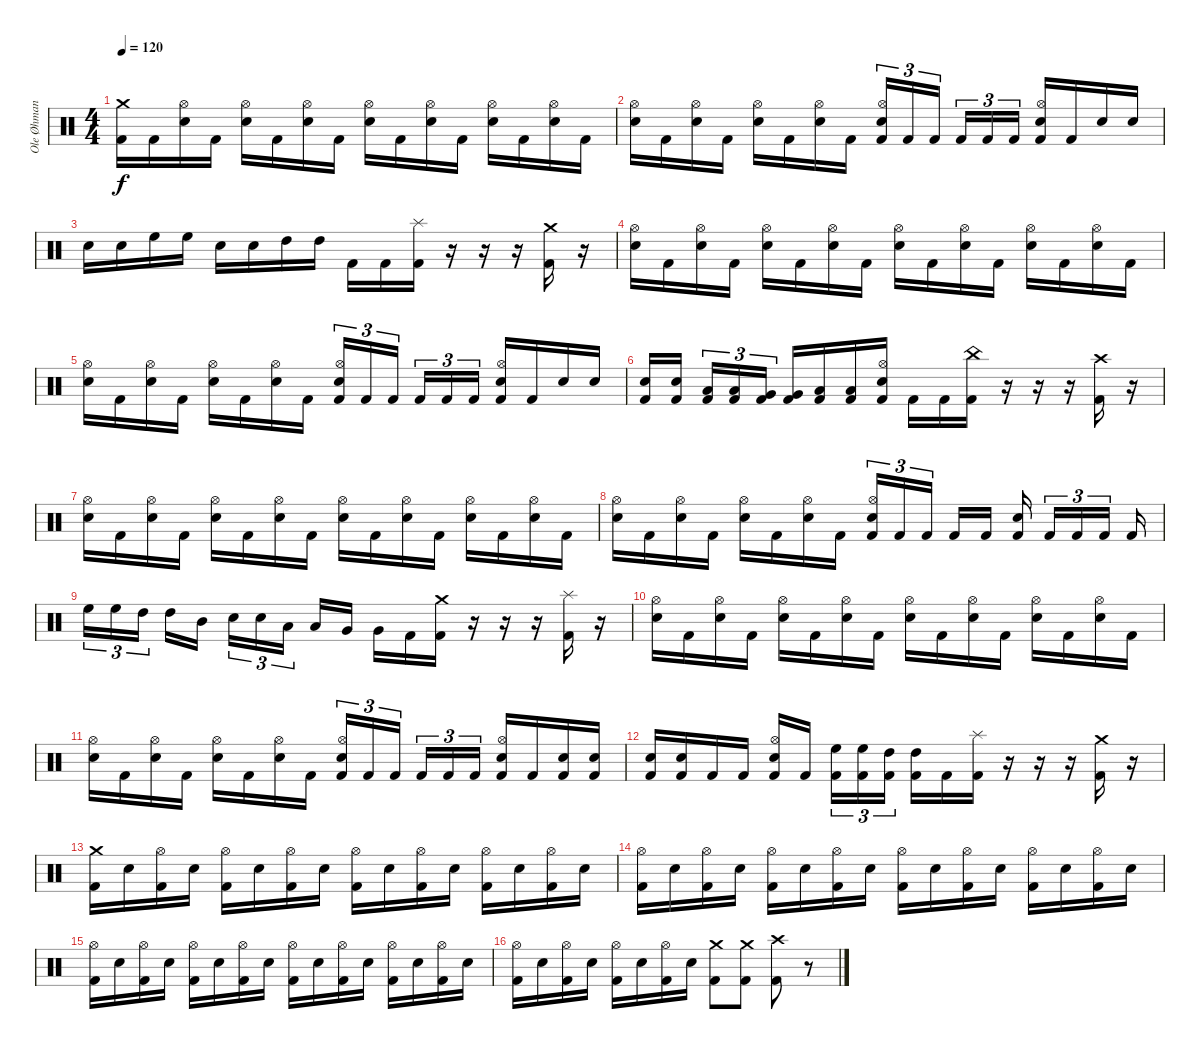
\track ("Ole Øhman (Trommur)" "Ole Øhman ") {instrument percussion}
\staff {score}
\articulation defaults
\ts (4 4)
\tempo 120
\clef neutral
\ks c
("Crash medium (hit)" "Kick (hit) 2").16{dy f} "Kick (hit) 2".16 ("Hi-Hat (open)" "Electric Snare (hit)").16 "Kick (hit) 2".16 ("Hi-Hat (open)" "Electric Snare (hit)").16 "Kick (hit) 2".16 ("Hi-Hat (open)" "Electric Snare (hit)").16 "Kick (hit) 2".16 ("Hi-Hat (open)" "Electric Snare (hit)").16 "Kick (hit) 2".16 ("Hi-Hat (open)" "Electric Snare (hit)").16 "Kick (hit) 2".16 ("Hi-Hat (open)" "Electric Snare (hit)").16 "Kick (hit) 2".16 ("Hi-Hat (open)" "Electric Snare (hit)").16 "Kick (hit) 2".16 |
("Hi-Hat (open)" "Electric Snare (hit)").16 "Kick (hit) 2".16 ("Hi-Hat (open)" "Electric Snare (hit)").16 "Kick (hit) 2".16 ("Hi-Hat (open)" "Electric Snare (hit)").16 "Kick (hit) 2".16 ("Hi-Hat (open)" "Electric Snare (hit)").16 "Kick (hit) 2".16 ("Hi-Hat (open)" "Electric Snare (hit)" "Kick (hit) 2").16{tu (3 2)} "Kick (hit) 2".16{tu (3 2)} "Kick (hit) 2".16{tu (3 2)} "Kick (hit) 2".16{tu (3 2)} "Kick (hit) 2".16{tu (3 2)} "Kick (hit) 2".16{tu (3 2)} ("Hi-Hat (open)" "Electric Snare (hit)" "Kick (hit) 2").16 "Kick (hit) 2".16 "Electric Snare (hit)".16 "Electric Snare (hit)".16 |
"Electric Snare (hit)".16 "Electric Snare (hit)".16 "High Floor Tom (hit)".16 "High Floor Tom (hit)".16 "Electric Snare (hit)".16 "Electric Snare (hit)".16 "High Tom (hit)".16 "High Tom (hit)".16 "Kick (hit) 2".16 "Kick (hit) 2".16 ("Splash (hit)" "Kick (hit) 2").16 r.16 r.16 r.16 ("Crash medium (hit)" "Kick (hit) 2").16 r.16 |
("Hi-Hat (open)" "Electric Snare (hit)").16 "Kick (hit) 2".16 ("Hi-Hat (open)" "Electric Snare (hit)").16 "Kick (hit) 2".16 ("Hi-Hat (open)" "Electric Snare (hit)").16 "Kick (hit) 2".16 ("Hi-Hat (open)" "Electric Snare (hit)").16 "Kick (hit) 2".16 ("Hi-Hat (open)" "Electric Snare (hit)").16 "Kick (hit) 2".16 ("Hi-Hat (open)" "Electric Snare (hit)").16 "Kick (hit) 2".16 ("Hi-Hat (open)" "Electric Snare (hit)").16 "Kick (hit) 2".16 ("Hi-Hat (open)" "Electric Snare (hit)").16 "Kick (hit) 2".16 |
("Hi-Hat (open)" "Electric Snare (hit)").16 "Kick (hit) 2".16 ("Hi-Hat (open)" "Electric Snare (hit)").16 "Kick (hit) 2".16 ("Hi-Hat (open)" "Electric Snare (hit)").16 "Kick (hit) 2".16 ("Hi-Hat (open)" "Electric Snare (hit)").16 "Kick (hit) 2".16 ("Hi-Hat (open)" "Electric Snare (hit)" "Kick (hit) 2").16{tu (3 2)} "Kick (hit) 2".16{tu (3 2)} "Kick (hit) 2".16{tu (3 2)} "Kick (hit) 2".16{tu (3 2)} "Kick (hit) 2".16{tu (3 2)} "Kick (hit) 2".16{tu (3 2)} ("Hi-Hat (open)" "Electric Snare (hit)" "Kick (hit) 2").16 "Kick (hit) 2".16 "Electric Snare (hit)".16 "Electric Snare (hit)".16 |
("Electric Snare (hit)" "Kick (hit) 2").16 ("Electric Snare (hit)" "Kick (hit) 2").16 ("Low Tom (hit)" "Kick (hit) 2").16{tu (3 2)} ("Low Tom (hit)" "Kick (hit) 2").16{tu (3 2)} ("Very Low Tom (hit)" "Kick (hit) 2").16{tu (3 2)} ("Very Low Tom (hit)" "Kick (hit) 2").16 ("Low Floor Tom (hit)" "Kick (hit) 2").16 ("Low Floor Tom (hit)" "Kick (hit) 2").16 ("Hi-Hat (open)" "Electric Snare (hit)" "Kick (hit) 2").16 "Kick (hit) 2".16 "Kick (hit) 2".16 ("China (hit)" "Kick (hit) 2").16 r.16 r.16 r.16 ("Crash high (hit)" "Kick (hit) 2").16 r.16 |
("Hi-Hat (open)" "Electric Snare (hit)").16 "Kick (hit) 2".16 ("Hi-Hat (open)" "Electric Snare (hit)").16 "Kick (hit) 2".16 ("Hi-Hat (open)" "Electric Snare (hit)").16 "Kick (hit) 2".16 ("Hi-Hat (open)" "Electric Snare (hit)").16 "Kick (hit) 2".16 ("Hi-Hat (open)" "Electric Snare (hit)").16 "Kick (hit) 2".16 ("Hi-Hat (open)" "Electric Snare (hit)").16 "Kick (hit) 2".16 ("Hi-Hat (open)" "Electric Snare (hit)").16 "Kick (hit) 2".16 ("Hi-Hat (open)" "Electric Snare (hit)").16 "Kick (hit) 2".16 |
("Hi-Hat (open)" "Electric Snare (hit)").16 "Kick (hit) 2".16 ("Hi-Hat (open)" "Electric Snare (hit)").16 "Kick (hit) 2".16 ("Hi-Hat (open)" "Electric Snare (hit)").16 "Kick (hit) 2".16 ("Hi-Hat (open)" "Electric Snare (hit)").16 "Kick (hit) 2".16 ("Hi-Hat (open)" "Electric Snare (hit)" "Kick (hit) 2").16{tu (3 2)} "Kick (hit) 2".16{tu (3 2)} "Kick (hit) 2".16{tu (3 2)} "Kick (hit) 2".16 "Kick (hit) 2".16 ("Electric Snare (hit)" "Kick (hit) 2").16 "Kick (hit) 2".16{tu (3 2)} "Kick (hit) 2".16{tu (3 2)} "Kick (hit) 2".16{tu (3 2)} "Kick (hit) 2".16 |
"High Floor Tom (hit)".16{tu (3 2)} "High Floor Tom (hit)".16{tu (3 2)} "High Tom (hit)".16{tu (3 2)} "High Tom (hit)".16 "Mid Tom (hit)".16 "Electric Snare (hit)".16{tu (3 2)} "Electric Snare (hit)".16{tu (3 2)} "Low Tom (hit)".16{tu (3 2)} "Low Tom (hit)".16 "Very Low Tom (hit)".16 "Very Low Tom (hit)".16 "Kick (hit) 2".16 ("Crash medium (hit)" "Kick (hit) 2").16 r.16 r.16 r.16 ("Splash (hit)" "Kick (hit) 2").16 r.16 |
("Hi-Hat (open)" "Electric Snare (hit)").16 "Kick (hit) 2".16 ("Hi-Hat (open)" "Electric Snare (hit)").16 "Kick (hit) 2".16 ("Hi-Hat (open)" "Electric Snare (hit)").16 "Kick (hit) 2".16 ("Hi-Hat (open)" "Electric Snare (hit)").16 "Kick (hit) 2".16 ("Hi-Hat (open)" "Electric Snare (hit)").16 "Kick (hit) 2".16 ("Hi-Hat (open)" "Electric Snare (hit)").16 "Kick (hit) 2".16 ("Hi-Hat (open)" "Electric Snare (hit)").16 "Kick (hit) 2".16 ("Hi-Hat (open)" "Electric Snare (hit)").16 "Kick (hit) 2".16 |
("Hi-Hat (open)" "Electric Snare (hit)").16 "Kick (hit) 2".16 ("Hi-Hat (open)" "Electric Snare (hit)").16 "Kick (hit) 2".16 ("Hi-Hat (open)" "Electric Snare (hit)").16 "Kick (hit) 2".16 ("Hi-Hat (open)" "Electric Snare (hit)").16 "Kick (hit) 2".16 ("Hi-Hat (open)" "Electric Snare (hit)" "Kick (hit) 2").16{tu (3 2)} "Kick (hit) 2".16{tu (3 2)} "Kick (hit) 2".16{tu (3 2)} "Kick (hit) 2".16{tu (3 2)} "Kick (hit) 2".16{tu (3 2)} "Kick (hit) 2".16{tu (3 2)} ("Hi-Hat (open)" "Electric Snare (hit)" "Kick (hit) 2").16 "Kick (hit) 2".16 ("Electric Snare (hit)" "Kick (hit) 2").16 ("Electric Snare (hit)" "Kick (hit) 2").16 |
("Electric Snare (hit)" "Kick (hit) 2").16 ("Electric Snare (hit)" "Kick (hit) 2").16 "Kick (hit) 2".16 "Kick (hit) 2".16 ("Hi-Hat (open)" "Electric Snare (hit)" "Kick (hit) 2").16 "Kick (hit) 2".16 ("High Floor Tom (hit)" "Kick (hit) 2").16{tu (3 2)} ("High Floor Tom (hit)" "Kick (hit) 2").16{tu (3 2)} ("High Tom (hit)" "Kick (hit) 2").16{tu (3 2)} ("High Tom (hit)" "Kick (hit) 2").16 "Kick (hit) 2".16 ("Splash (hit)" "Kick (hit) 2").16 r.16 r.16 r.16 ("Crash medium (hit)" "Kick (hit) 2").16 r.16 |
("Crash medium (hit)" "Kick (hit) 2").16 "Electric Snare (hit)".16 ("Hi-Hat (open)" "Kick (hit) 2").16 "Electric Snare (hit)".16 ("Hi-Hat (open)" "Kick (hit) 2").16 "Electric Snare (hit)".16 ("Hi-Hat (open)" "Kick (hit) 2").16 "Electric Snare (hit)".16 ("Hi-Hat (open)" "Kick (hit) 2").16 "Electric Snare (hit)".16 ("Hi-Hat (open)" "Kick (hit) 2").16 "Electric Snare (hit)".16 ("Hi-Hat (open)" "Kick (hit) 2").16 "Electric Snare (hit)".16 ("Hi-Hat (open)" "Kick (hit) 2").16 "Electric Snare (hit)".16 |
("Hi-Hat (open)" "Kick (hit) 2").16 "Electric Snare (hit)".16 ("Hi-Hat (open)" "Kick (hit) 2").16 "Electric Snare (hit)".16 ("Hi-Hat (open)" "Kick (hit) 2").16 "Electric Snare (hit)".16 ("Hi-Hat (open)" "Kick (hit) 2").16 "Electric Snare (hit)".16 ("Hi-Hat (open)" "Kick (hit) 2").16 "Electric Snare (hit)".16 ("Hi-Hat (open)" "Kick (hit) 2").16 "Electric Snare (hit)".16 ("Hi-Hat (open)" "Kick (hit) 2").16 "Electric Snare (hit)".16 ("Hi-Hat (open)" "Kick (hit) 2").16 "Electric Snare (hit)".16 |
("Hi-Hat (open)" "Kick (hit) 2").16 "Electric Snare (hit)".16 ("Hi-Hat (open)" "Kick (hit) 2").16 "Electric Snare (hit)".16 ("Hi-Hat (open)" "Kick (hit) 2").16 "Electric Snare (hit)".16 ("Hi-Hat (open)" "Kick (hit) 2").16 "Electric Snare (hit)".16 ("Hi-Hat (open)" "Kick (hit) 2").16 "Electric Snare (hit)".16 ("Hi-Hat (open)" "Kick (hit) 2").16 "Electric Snare (hit)".16 ("Hi-Hat (open)" "Kick (hit) 2").16 "Electric Snare (hit)".16 ("Hi-Hat (open)" "Kick (hit) 2").16 "Electric Snare (hit)".16 |
("Hi-Hat (open)" "Kick (hit) 2").16 "Electric Snare (hit)".16 ("Hi-Hat (open)" "Kick (hit) 2").16 "Electric Snare (hit)".16 ("Hi-Hat (open)" "Kick (hit) 2").16 "Electric Snare (hit)".16 ("Hi-Hat (open)" "Kick (hit) 2").16 "Electric Snare (hit)".16 ("Crash medium (hit)" "Kick (hit) 2").8 ("Crash medium (hit)" "Kick (hit) 2").8 ("Crash high (hit)" "Kick (hit) 2").8 r.8
